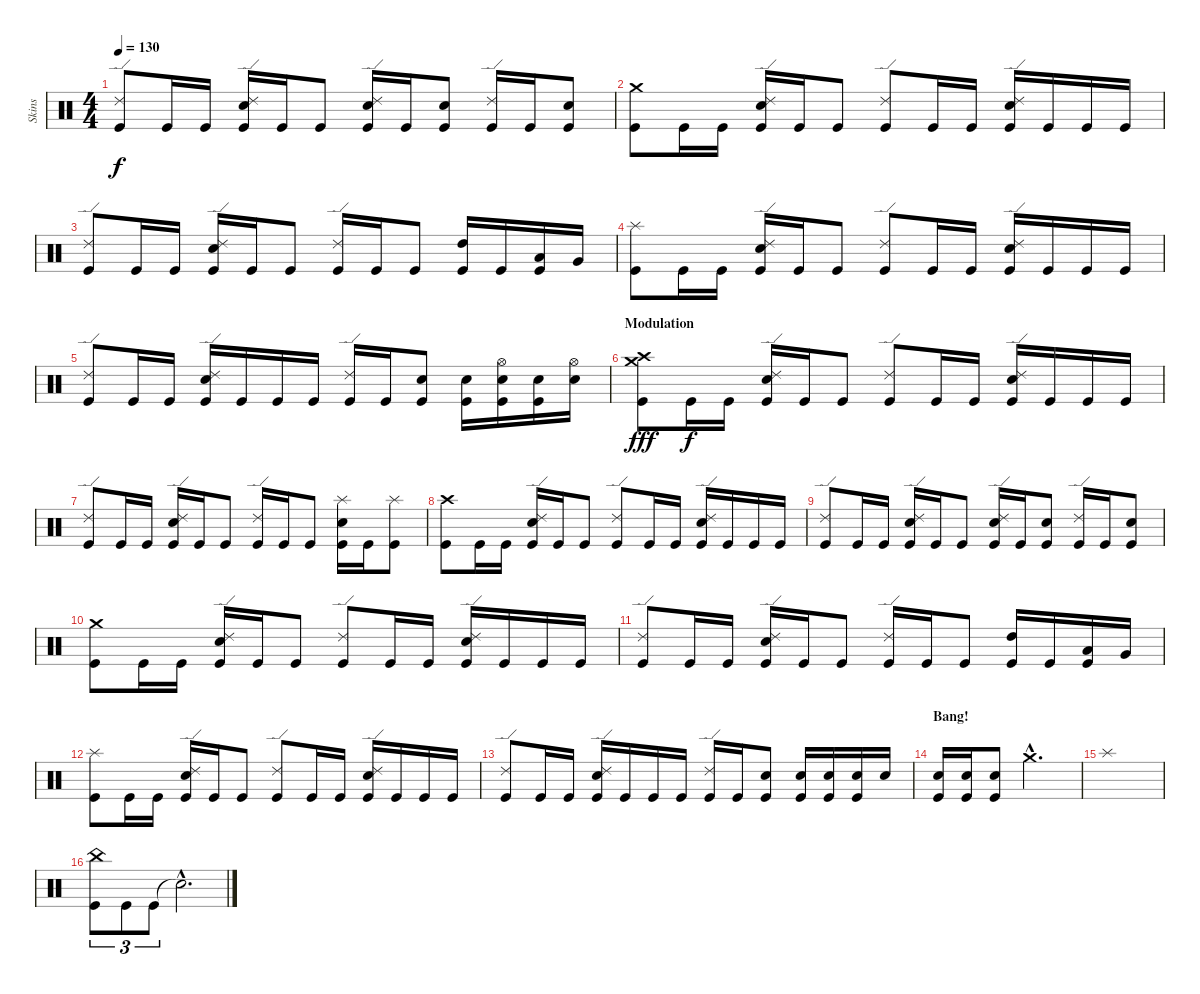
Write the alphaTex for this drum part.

\track ("Skins" "Skins") {instrument percussion}
\staff {score}
\articulation defaults
\ts (4 4)
\tempo 130
\clef neutral
\ks c
("Ride (edge) 2" "Kick (hit)").8{dy f} "Kick (hit)".16 "Kick (hit)".16 ("Ride (edge) 2" "Electric Snare (hit)" "Kick (hit)").16 "Kick (hit)".16 "Kick (hit)".8 ("Ride (edge) 2" "Electric Snare (hit)" "Kick (hit)").16 "Kick (hit)".16 ("Electric Snare (hit)" "Kick (hit)").8 ("Ride (edge) 2" "Kick (hit)").16 "Kick (hit)".16 ("Electric Snare (hit)" "Kick (hit)").8 |
("Crash medium (hit)" "Kick (hit)").8 "Kick (hit)".16 "Kick (hit)".16 ("Ride (edge) 2" "Electric Snare (hit)" "Kick (hit)").16 "Kick (hit)".16 "Kick (hit)".8 ("Ride (edge) 2" "Kick (hit)").8 "Kick (hit)".16 "Kick (hit)".16 ("Ride (edge) 2" "Electric Snare (hit)" "Kick (hit)").16 "Kick (hit)".16 "Kick (hit)".16 "Kick (hit)".16 |
("Ride (edge) 2" "Kick (hit)").8 "Kick (hit)".16 "Kick (hit)".16 ("Ride (edge) 2" "Electric Snare (hit)" "Kick (hit)").16 "Kick (hit)".16 "Kick (hit)".8 ("Ride (edge) 2" "Kick (hit)").16 "Kick (hit)".16 "Kick (hit)".8 ("High Tom (hit)" "Kick (hit)").16 "Kick (hit)".16 ("Low Tom (hit)" "Kick (hit)").16 "Very Low Tom (hit)".16 |
("Splash (hit)" "Kick (hit)").8 "Kick (hit)".16 "Kick (hit)".16 ("Ride (edge) 2" "Electric Snare (hit)" "Kick (hit)").16 "Kick (hit)".16 "Kick (hit)".8 ("Ride (edge) 2" "Kick (hit)").8 "Kick (hit)".16 "Kick (hit)".16 ("Ride (edge) 2" "Electric Snare (hit)" "Kick (hit)").16 "Kick (hit)".16 "Kick (hit)".16 "Kick (hit)".16 |
("Ride (edge) 2" "Kick (hit)").8 "Kick (hit)".16 "Kick (hit)".16 ("Ride (edge) 2" "Electric Snare (hit)" "Kick (hit)").16 "Kick (hit)".16 "Kick (hit)".16 "Kick (hit)".16 ("Ride (edge) 2" "Kick (hit)").16 "Kick (hit)".16 ("Electric Snare (hit)" "Kick (hit)").8 ("Electric Snare (hit)" "Kick (hit)").16 ("Hi-Hat (open)" "Electric Snare (hit)" "Kick (hit)").16 ("Electric Snare (hit)" "Kick (hit)").16 ("Hi-Hat (open)" "Electric Snare (hit)").16 |
\section ("" "Modulation")
("Crash medium (hit)" "Crash high (hit)" "Kick (hit)").8{dy fff} "Kick (hit)".16{dy f} "Kick (hit)".16 ("Ride (edge) 2" "Electric Snare (hit)" "Kick (hit)").16 "Kick (hit)".16 "Kick (hit)".8 ("Ride (edge) 2" "Kick (hit)").8 "Kick (hit)".16 "Kick (hit)".16 ("Ride (edge) 2" "Electric Snare (hit)" "Kick (hit)").16 "Kick (hit)".16 "Kick (hit)".16 "Kick (hit)".16 |
("Ride (edge) 2" "Kick (hit)").8 "Kick (hit)".16 "Kick (hit)".16 ("Ride (edge) 2" "Electric Snare (hit)" "Kick (hit)").16 "Kick (hit)".16 "Kick (hit)".8 ("Ride (edge) 2" "Kick (hit)").16 "Kick (hit)".16 "Kick (hit)".8 ("Splash (hit)" "Electric Snare (hit)" "Kick (hit)").16 "Kick (hit)".16 ("Splash (hit)" "Kick (hit)").8 |
("Crash high (hit)" "Kick (hit)").8 "Kick (hit)".16 "Kick (hit)".16 ("Ride (edge) 2" "Electric Snare (hit)" "Kick (hit)").16 "Kick (hit)".16 "Kick (hit)".8 ("Ride (edge) 2" "Kick (hit)").8 "Kick (hit)".16 "Kick (hit)".16 ("Ride (edge) 2" "Electric Snare (hit)" "Kick (hit)").16 "Kick (hit)".16 "Kick (hit)".16 "Kick (hit)".16 |
("Ride (edge) 2" "Kick (hit)").8 "Kick (hit)".16 "Kick (hit)".16 ("Ride (edge) 2" "Electric Snare (hit)" "Kick (hit)").16 "Kick (hit)".16 "Kick (hit)".8 ("Ride (edge) 2" "Electric Snare (hit)" "Kick (hit)").16 "Kick (hit)".16 ("Electric Snare (hit)" "Kick (hit)").8 ("Ride (edge) 2" "Kick (hit)").16 "Kick (hit)".16 ("Electric Snare (hit)" "Kick (hit)").8 |
("Crash medium (hit)" "Kick (hit)").8 "Kick (hit)".16 "Kick (hit)".16 ("Ride (edge) 2" "Electric Snare (hit)" "Kick (hit)").16 "Kick (hit)".16 "Kick (hit)".8 ("Ride (edge) 2" "Kick (hit)").8 "Kick (hit)".16 "Kick (hit)".16 ("Ride (edge) 2" "Electric Snare (hit)" "Kick (hit)").16 "Kick (hit)".16 "Kick (hit)".16 "Kick (hit)".16 |
("Ride (edge) 2" "Kick (hit)").8 "Kick (hit)".16 "Kick (hit)".16 ("Ride (edge) 2" "Electric Snare (hit)" "Kick (hit)").16 "Kick (hit)".16 "Kick (hit)".8 ("Ride (edge) 2" "Kick (hit)").16 "Kick (hit)".16 "Kick (hit)".8 ("High Tom (hit)" "Kick (hit)").16 "Kick (hit)".16 ("Low Tom (hit)" "Kick (hit)").16 "Very Low Tom (hit)".16 |
("Splash (hit)" "Kick (hit)").8 "Kick (hit)".16 "Kick (hit)".16 ("Ride (edge) 2" "Electric Snare (hit)" "Kick (hit)").16 "Kick (hit)".16 "Kick (hit)".8 ("Ride (edge) 2" "Kick (hit)").8 "Kick (hit)".16 "Kick (hit)".16 ("Ride (edge) 2" "Electric Snare (hit)" "Kick (hit)").16 "Kick (hit)".16 "Kick (hit)".16 "Kick (hit)".16 |
("Ride (edge) 2" "Kick (hit)").8 "Kick (hit)".16 "Kick (hit)".16 ("Ride (edge) 2" "Electric Snare (hit)" "Kick (hit)").16 "Kick (hit)".16 "Kick (hit)".16 "Kick (hit)".16 ("Ride (edge) 2" "Kick (hit)").16 "Kick (hit)".16 ("Electric Snare (hit)" "Kick (hit)").8 ("Electric Snare (hit)" "Kick (hit)").16 ("Electric Snare (hit)" "Kick (hit)").16 ("Electric Snare (hit)" "Kick (hit)").16 "Electric Snare (hit)".16 |
\section ("" "Bang!")
("Electric Snare (hit)" "Kick (hit)").16 ("Electric Snare (hit)" "Kick (hit)").16 ("Electric Snare (hit)" "Kick (hit)").8 "Crash medium (hit)"{hac}.2{d} |
"Splash (hit)".1 |
("China (hit)" "Kick (hit)").8{tu (3 2)} "Kick (hit)".8{tu (3 2)} "Kick (hit)".8{tu (3 2)} "Snare (hit)"{hac t}.2{d}
